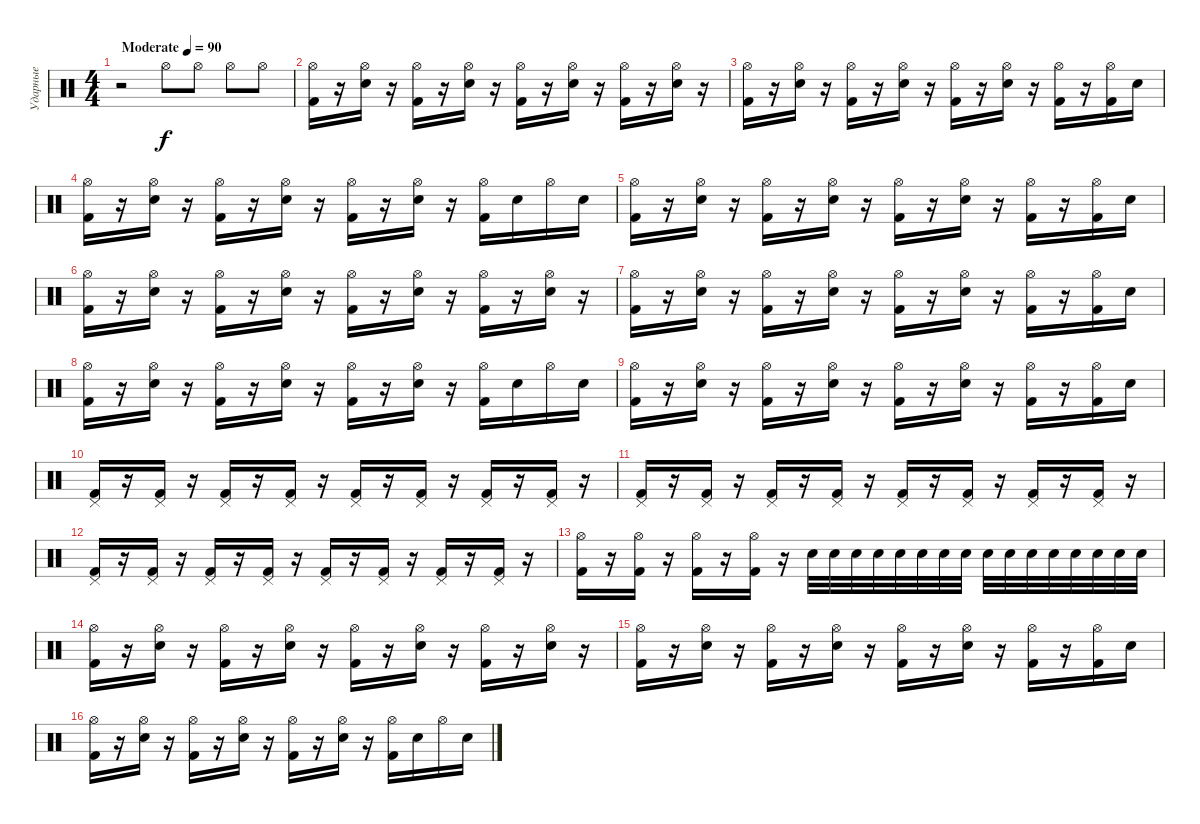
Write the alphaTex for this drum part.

\track ("Ударные" "Ударные") {instrument percussion}
\staff {score}
\articulation defaults
\ts (4 4)
\tempo (90 "Moderate")
\clef neutral
\ks c
r.2{dy f} "Hi-Hat (open)".8 "Hi-Hat (open)".8 "Hi-Hat (open)".8 "Hi-Hat (open)".8 |
("Hi-Hat (open)" "Kick (hit) 2").16 r.16 ("Hi-Hat (open)" "Snare (hit) 2").16 r.16 ("Hi-Hat (open)" "Kick (hit) 2").16 r.16 ("Hi-Hat (open)" "Snare (hit) 2").16 r.16 ("Hi-Hat (open)" "Kick (hit) 2").16 r.16 ("Hi-Hat (open)" "Snare (hit) 2").16 r.16 ("Hi-Hat (open)" "Kick (hit) 2").16 r.16 ("Hi-Hat (open)" "Snare (hit) 2").16 r.16 |
("Hi-Hat (open)" "Kick (hit) 2").16 r.16 ("Hi-Hat (open)" "Snare (hit) 2").16 r.16 ("Hi-Hat (open)" "Kick (hit) 2").16 r.16 ("Hi-Hat (open)" "Snare (hit) 2").16 r.16 ("Hi-Hat (open)" "Kick (hit) 2").16 r.16 ("Hi-Hat (open)" "Snare (hit) 2").16 r.16 ("Hi-Hat (open)" "Kick (hit) 2").16 r.16 ("Hi-Hat (open)" "Kick (hit) 2").16 "Snare (hit) 2".16 |
("Hi-Hat (open)" "Kick (hit) 2").16 r.16 ("Hi-Hat (open)" "Snare (hit) 2").16 r.16 ("Hi-Hat (open)" "Kick (hit) 2").16 r.16 ("Hi-Hat (open)" "Snare (hit) 2").16 r.16 ("Hi-Hat (open)" "Kick (hit) 2").16 r.16 ("Hi-Hat (open)" "Snare (hit) 2").16 r.16 ("Hi-Hat (open)" "Kick (hit) 2").16 "Snare (hit) 2".16 "Hi-Hat (open)".16 "Snare (hit) 2".16 |
("Hi-Hat (open)" "Kick (hit) 2").16 r.16 ("Hi-Hat (open)" "Snare (hit) 2").16 r.16 ("Hi-Hat (open)" "Kick (hit) 2").16 r.16 ("Hi-Hat (open)" "Snare (hit) 2").16 r.16 ("Hi-Hat (open)" "Kick (hit) 2").16 r.16 ("Hi-Hat (open)" "Snare (hit) 2").16 r.16 ("Hi-Hat (open)" "Kick (hit) 2").16 r.16 ("Hi-Hat (open)" "Kick (hit) 2").16 "Snare (hit) 2".16 |
("Hi-Hat (open)" "Kick (hit) 2").16 r.16 ("Hi-Hat (open)" "Snare (hit) 2").16 r.16 ("Hi-Hat (open)" "Kick (hit) 2").16 r.16 ("Hi-Hat (open)" "Snare (hit) 2").16 r.16 ("Hi-Hat (open)" "Kick (hit) 2").16 r.16 ("Hi-Hat (open)" "Snare (hit) 2").16 r.16 ("Hi-Hat (open)" "Kick (hit) 2").16 r.16 ("Hi-Hat (open)" "Snare (hit) 2").16 r.16 |
("Hi-Hat (open)" "Kick (hit) 2").16 r.16 ("Hi-Hat (open)" "Snare (hit) 2").16 r.16 ("Hi-Hat (open)" "Kick (hit) 2").16 r.16 ("Hi-Hat (open)" "Snare (hit) 2").16 r.16 ("Hi-Hat (open)" "Kick (hit) 2").16 r.16 ("Hi-Hat (open)" "Snare (hit) 2").16 r.16 ("Hi-Hat (open)" "Kick (hit) 2").16 r.16 ("Hi-Hat (open)" "Kick (hit) 2").16 "Snare (hit) 2".16 |
("Hi-Hat (open)" "Kick (hit) 2").16 r.16 ("Hi-Hat (open)" "Snare (hit) 2").16 r.16 ("Hi-Hat (open)" "Kick (hit) 2").16 r.16 ("Hi-Hat (open)" "Snare (hit) 2").16 r.16 ("Hi-Hat (open)" "Kick (hit) 2").16 r.16 ("Hi-Hat (open)" "Snare (hit) 2").16 r.16 ("Hi-Hat (open)" "Kick (hit) 2").16 "Snare (hit) 2".16 "Hi-Hat (open)".16 "Snare (hit) 2".16 |
("Hi-Hat (open)" "Kick (hit) 2").16 r.16 ("Hi-Hat (open)" "Snare (hit) 2").16 r.16 ("Hi-Hat (open)" "Kick (hit) 2").16 r.16 ("Hi-Hat (open)" "Snare (hit) 2").16 r.16 ("Hi-Hat (open)" "Kick (hit) 2").16 r.16 ("Hi-Hat (open)" "Snare (hit) 2").16 r.16 ("Hi-Hat (open)" "Kick (hit) 2").16 r.16 ("Hi-Hat (open)" "Kick (hit) 2").16 "Snare (hit) 2".16 |
("Pedal Hi-Hat (hit)" "Kick (hit) 2").16 r.16 ("Pedal Hi-Hat (hit)" "Kick (hit) 2").16 r.16 ("Pedal Hi-Hat (hit)" "Kick (hit) 2").16 r.16 ("Pedal Hi-Hat (hit)" "Kick (hit) 2").16 r.16 ("Pedal Hi-Hat (hit)" "Kick (hit) 2").16 r.16 ("Pedal Hi-Hat (hit)" "Kick (hit) 2").16 r.16 ("Pedal Hi-Hat (hit)" "Kick (hit) 2").16 r.16 ("Pedal Hi-Hat (hit)" "Kick (hit) 2").16 r.16 |
("Pedal Hi-Hat (hit)" "Kick (hit) 2").16 r.16 ("Pedal Hi-Hat (hit)" "Kick (hit) 2").16 r.16 ("Pedal Hi-Hat (hit)" "Kick (hit) 2").16 r.16 ("Pedal Hi-Hat (hit)" "Kick (hit) 2").16 r.16 ("Pedal Hi-Hat (hit)" "Kick (hit) 2").16 r.16 ("Pedal Hi-Hat (hit)" "Kick (hit) 2").16 r.16 ("Pedal Hi-Hat (hit)" "Kick (hit) 2").16 r.16 ("Pedal Hi-Hat (hit)" "Kick (hit) 2").16 r.16 |
("Pedal Hi-Hat (hit)" "Kick (hit) 2").16 r.16 ("Pedal Hi-Hat (hit)" "Kick (hit) 2").16 r.16 ("Pedal Hi-Hat (hit)" "Kick (hit) 2").16 r.16 ("Pedal Hi-Hat (hit)" "Kick (hit) 2").16 r.16 ("Pedal Hi-Hat (hit)" "Kick (hit) 2").16 r.16 ("Pedal Hi-Hat (hit)" "Kick (hit) 2").16 r.16 ("Pedal Hi-Hat (hit)" "Kick (hit) 2").16 r.16 ("Pedal Hi-Hat (hit)" "Kick (hit) 2").16 r.16 |
("Hi-Hat (open)" "Kick (hit) 2").16 r.16 ("Hi-Hat (open)" "Kick (hit) 2").16 r.16 ("Hi-Hat (open)" "Kick (hit) 2").16 r.16 ("Hi-Hat (open)" "Kick (hit) 2").16 r.16 "Snare (hit) 2".32 "Snare (hit) 2".32 "Snare (hit) 2".32 "Snare (hit) 2".32 "Snare (hit) 2".32 "Snare (hit) 2".32 "Snare (hit) 2".32 "Snare (hit) 2".32 "Snare (hit) 2".32 "Snare (hit) 2".32 "Snare (hit) 2".32 "Snare (hit) 2".32 "Snare (hit) 2".32 "Snare (hit) 2".32 "Snare (hit) 2".32 "Snare (hit) 2".32 |
("Hi-Hat (open)" "Kick (hit) 2").16 r.16 ("Hi-Hat (open)" "Snare (hit) 2").16 r.16 ("Hi-Hat (open)" "Kick (hit) 2").16 r.16 ("Hi-Hat (open)" "Snare (hit) 2").16 r.16 ("Hi-Hat (open)" "Kick (hit) 2").16 r.16 ("Hi-Hat (open)" "Snare (hit) 2").16 r.16 ("Hi-Hat (open)" "Kick (hit) 2").16 r.16 ("Hi-Hat (open)" "Snare (hit) 2").16 r.16 |
("Hi-Hat (open)" "Kick (hit) 2").16 r.16 ("Hi-Hat (open)" "Snare (hit) 2").16 r.16 ("Hi-Hat (open)" "Kick (hit) 2").16 r.16 ("Hi-Hat (open)" "Snare (hit) 2").16 r.16 ("Hi-Hat (open)" "Kick (hit) 2").16 r.16 ("Hi-Hat (open)" "Snare (hit) 2").16 r.16 ("Hi-Hat (open)" "Kick (hit) 2").16 r.16 ("Hi-Hat (open)" "Kick (hit) 2").16 "Snare (hit) 2".16 |
("Hi-Hat (open)" "Kick (hit) 2").16 r.16 ("Hi-Hat (open)" "Snare (hit) 2").16 r.16 ("Hi-Hat (open)" "Kick (hit) 2").16 r.16 ("Hi-Hat (open)" "Snare (hit) 2").16 r.16 ("Hi-Hat (open)" "Kick (hit) 2").16 r.16 ("Hi-Hat (open)" "Snare (hit) 2").16 r.16 ("Hi-Hat (open)" "Kick (hit) 2").16 "Snare (hit) 2".16 "Hi-Hat (open)".16 "Snare (hit) 2".16
